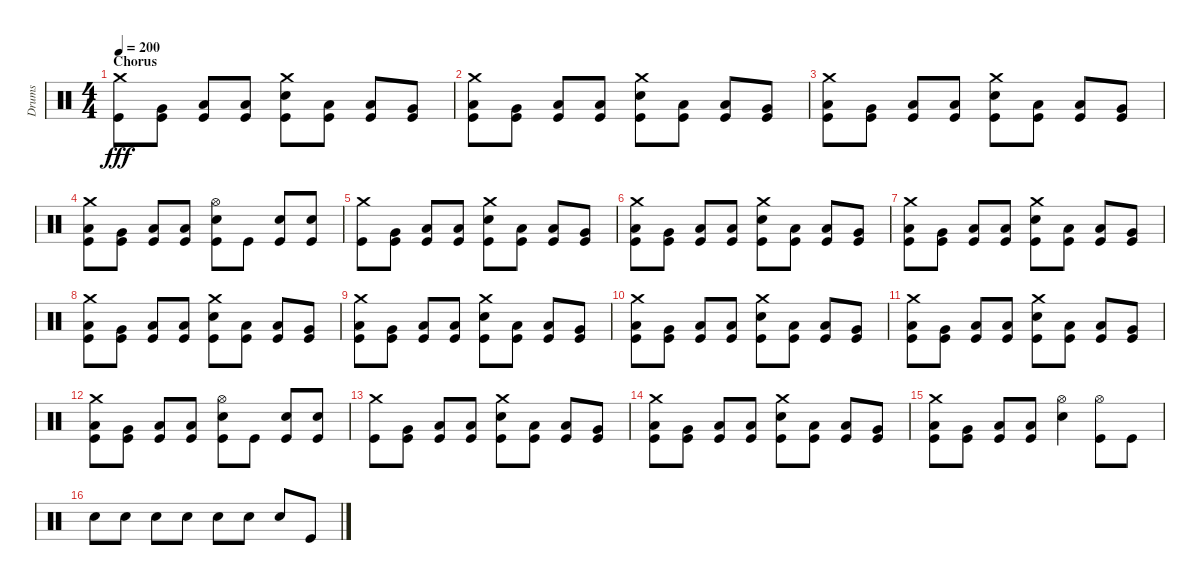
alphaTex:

\track ("Drums" "Drums") {instrument percussion}
\staff {score}
\articulation defaults
\ts (4 4)
\section ("" "Chorus")
\tempo 200
\clef neutral
\ks c
("Crash medium (hit)" "Kick (hit)").8{dy fff} ("Very Low Tom (hit)" "Kick (hit)").8 ("Low Floor Tom (hit)" "Kick (hit)").8 ("Low Floor Tom (hit)" "Kick (hit)").8 ("Crash medium (hit)" "Snare (hit) 2" "Kick (hit)").8 ("Low Floor Tom (hit)" "Kick (hit)").8 ("Low Floor Tom (hit)" "Kick (hit)").8 ("Very Low Tom (hit)" "Kick (hit)").8 |
("Crash medium (hit)" "Low Floor Tom (hit)" "Kick (hit)").8 ("Very Low Tom (hit)" "Kick (hit)").8 ("Low Floor Tom (hit)" "Kick (hit)").8 ("Low Floor Tom (hit)" "Kick (hit)").8 ("Crash medium (hit)" "Snare (hit) 2" "Kick (hit)").8 ("Low Floor Tom (hit)" "Kick (hit)").8 ("Low Floor Tom (hit)" "Kick (hit)").8 ("Very Low Tom (hit)" "Kick (hit)").8 |
("Crash medium (hit)" "Low Floor Tom (hit)" "Kick (hit)").8 ("Very Low Tom (hit)" "Kick (hit)").8 ("Low Floor Tom (hit)" "Kick (hit)").8 ("Low Floor Tom (hit)" "Kick (hit)").8 ("Crash medium (hit)" "Snare (hit) 2" "Kick (hit)").8 ("Low Floor Tom (hit)" "Kick (hit)").8 ("Low Floor Tom (hit)" "Kick (hit)").8 ("Very Low Tom (hit)" "Kick (hit)").8 |
("Crash medium (hit)" "Low Floor Tom (hit)" "Kick (hit)").8 ("Very Low Tom (hit)" "Kick (hit)").8 ("Low Floor Tom (hit)" "Kick (hit)").8 ("Low Floor Tom (hit)" "Kick (hit)").8 ("Hi-Hat (open)" "Snare (hit) 2" "Kick (hit)").8 "Kick (hit)".8 ("Snare (hit) 2" "Kick (hit)").8 ("Snare (hit) 2" "Kick (hit)").8 |
("Crash medium (hit)" "Kick (hit)").8 ("Very Low Tom (hit)" "Kick (hit)").8 ("Low Floor Tom (hit)" "Kick (hit)").8 ("Low Floor Tom (hit)" "Kick (hit)").8 ("Crash medium (hit)" "Snare (hit) 2" "Kick (hit)").8 ("Low Floor Tom (hit)" "Kick (hit)").8 ("Low Floor Tom (hit)" "Kick (hit)").8 ("Very Low Tom (hit)" "Kick (hit)").8 |
("Crash medium (hit)" "Low Floor Tom (hit)" "Kick (hit)").8 ("Very Low Tom (hit)" "Kick (hit)").8 ("Low Floor Tom (hit)" "Kick (hit)").8 ("Low Floor Tom (hit)" "Kick (hit)").8 ("Crash medium (hit)" "Snare (hit) 2" "Kick (hit)").8 ("Low Floor Tom (hit)" "Kick (hit)").8 ("Low Floor Tom (hit)" "Kick (hit)").8 ("Very Low Tom (hit)" "Kick (hit)").8 |
("Crash medium (hit)" "Low Floor Tom (hit)" "Kick (hit)").8 ("Very Low Tom (hit)" "Kick (hit)").8 ("Low Floor Tom (hit)" "Kick (hit)").8 ("Low Floor Tom (hit)" "Kick (hit)").8 ("Crash medium (hit)" "Snare (hit) 2" "Kick (hit)").8 ("Low Floor Tom (hit)" "Kick (hit)").8 ("Low Floor Tom (hit)" "Kick (hit)").8 ("Very Low Tom (hit)" "Kick (hit)").8 |
("Crash medium (hit)" "Low Floor Tom (hit)" "Kick (hit)").8 ("Very Low Tom (hit)" "Kick (hit)").8 ("Low Floor Tom (hit)" "Kick (hit)").8 ("Low Floor Tom (hit)" "Kick (hit)").8 ("Crash medium (hit)" "Snare (hit) 2" "Kick (hit)").8 ("Low Floor Tom (hit)" "Kick (hit)").8 ("Low Floor Tom (hit)" "Kick (hit)").8 ("Very Low Tom (hit)" "Kick (hit)").8 |
("Crash medium (hit)" "Low Floor Tom (hit)" "Kick (hit)").8 ("Very Low Tom (hit)" "Kick (hit)").8 ("Low Floor Tom (hit)" "Kick (hit)").8 ("Low Floor Tom (hit)" "Kick (hit)").8 ("Crash medium (hit)" "Snare (hit) 2" "Kick (hit)").8 ("Low Floor Tom (hit)" "Kick (hit)").8 ("Low Floor Tom (hit)" "Kick (hit)").8 ("Very Low Tom (hit)" "Kick (hit)").8 |
("Crash medium (hit)" "Low Floor Tom (hit)" "Kick (hit)").8 ("Very Low Tom (hit)" "Kick (hit)").8 ("Low Floor Tom (hit)" "Kick (hit)").8 ("Low Floor Tom (hit)" "Kick (hit)").8 ("Crash medium (hit)" "Snare (hit) 2" "Kick (hit)").8 ("Low Floor Tom (hit)" "Kick (hit)").8 ("Low Floor Tom (hit)" "Kick (hit)").8 ("Very Low Tom (hit)" "Kick (hit)").8 |
("Crash medium (hit)" "Low Floor Tom (hit)" "Kick (hit)").8 ("Very Low Tom (hit)" "Kick (hit)").8 ("Low Floor Tom (hit)" "Kick (hit)").8 ("Low Floor Tom (hit)" "Kick (hit)").8 ("Crash medium (hit)" "Snare (hit) 2" "Kick (hit)").8 ("Low Floor Tom (hit)" "Kick (hit)").8 ("Low Floor Tom (hit)" "Kick (hit)").8 ("Very Low Tom (hit)" "Kick (hit)").8 |
("Crash medium (hit)" "Low Floor Tom (hit)" "Kick (hit)").8 ("Very Low Tom (hit)" "Kick (hit)").8 ("Low Floor Tom (hit)" "Kick (hit)").8 ("Low Floor Tom (hit)" "Kick (hit)").8 ("Hi-Hat (open)" "Snare (hit) 2" "Kick (hit)").8 "Kick (hit)".8 ("Snare (hit) 2" "Kick (hit)").8 ("Snare (hit) 2" "Kick (hit)").8 |
("Crash medium (hit)" "Kick (hit)").8 ("Very Low Tom (hit)" "Kick (hit)").8 ("Low Floor Tom (hit)" "Kick (hit)").8 ("Low Floor Tom (hit)" "Kick (hit)").8 ("Crash medium (hit)" "Snare (hit) 2" "Kick (hit)").8 ("Low Floor Tom (hit)" "Kick (hit)").8 ("Low Floor Tom (hit)" "Kick (hit)").8 ("Very Low Tom (hit)" "Kick (hit)").8 |
("Crash medium (hit)" "Low Floor Tom (hit)" "Kick (hit)").8 ("Very Low Tom (hit)" "Kick (hit)").8 ("Low Floor Tom (hit)" "Kick (hit)").8 ("Low Floor Tom (hit)" "Kick (hit)").8 ("Crash medium (hit)" "Snare (hit) 2" "Kick (hit)").8 ("Low Floor Tom (hit)" "Kick (hit)").8 ("Low Floor Tom (hit)" "Kick (hit)").8 ("Very Low Tom (hit)" "Kick (hit)").8 |
("Crash medium (hit)" "Low Floor Tom (hit)" "Kick (hit)").8 ("Very Low Tom (hit)" "Kick (hit)").8 ("Low Floor Tom (hit)" "Kick (hit)").8 ("Low Floor Tom (hit)" "Kick (hit)").8 ("Hi-Hat (open)" "Snare (hit) 2").4 ("Hi-Hat (open)" "Kick (hit)").8 "Kick (hit)".8 |
"Snare (hit) 2".8 "Snare (hit) 2".8 "Snare (hit) 2".8 "Snare (hit) 2".8 "Snare (hit) 2".8 "Snare (hit) 2".8 "Snare (hit) 2".8 "Kick (hit)".8
